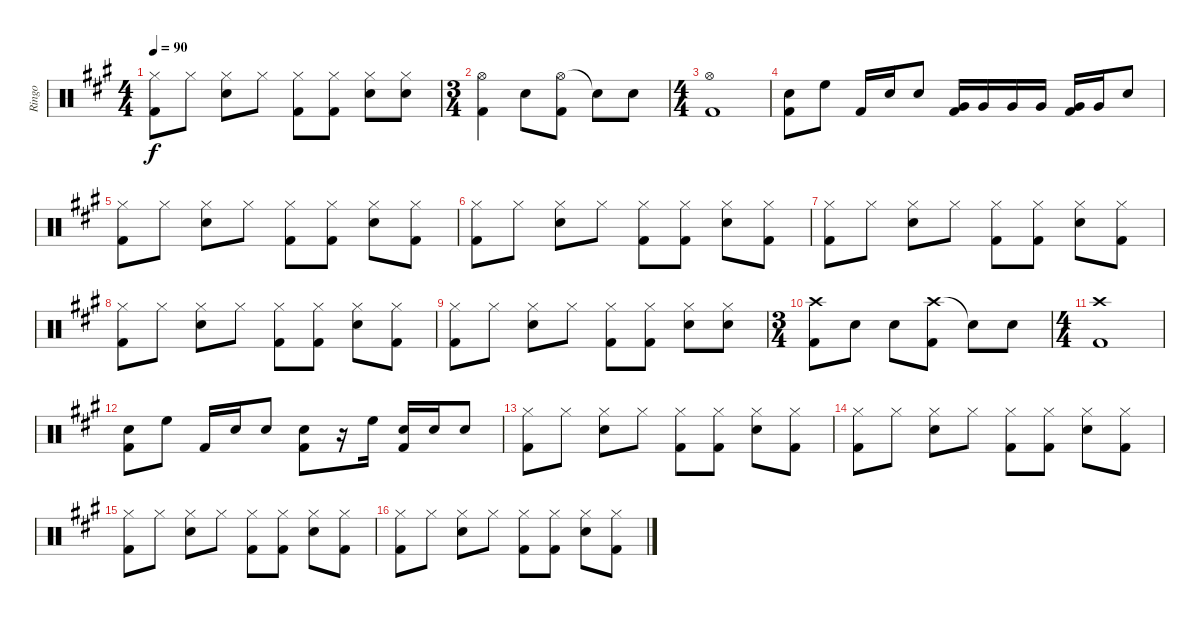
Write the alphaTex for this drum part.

\track ("Ringo" "Ringo") {instrument percussion}
\staff {score}
\articulation defaults
\ts (4 4)
\tempo 90
\clef neutral
\ks a
("Hi-Hat (closed)" "Kick (hit) 2").8{dy f} "Hi-Hat (closed)".8 ("Hi-Hat (closed)" "Snare (hit) 2").8 "Hi-Hat (closed)".8 ("Hi-Hat (closed)" "Kick (hit) 2").8 ("Hi-Hat (closed)" "Kick (hit) 2").8 ("Hi-Hat (closed)" "Snare (hit) 2").8 ("Hi-Hat (closed)" "Snare (hit) 2").8 |
\ts (3 4)
("Hi-Hat (open)" "Kick (hit) 2").4 "Snare (hit) 2".8 ("Hi-Hat (open)" "Kick (hit) 2").8 "Snare (hit)"{t}.8 "Snare (hit) 2".8 |
\ts (4 4)
("Hi-Hat (open)" "Kick (hit) 2").1 |
("Snare (hit) 2" "Kick (hit) 2").8 "High Floor Tom (hit)".8 "Kick (hit) 2".16 "Snare (hit) 2".16 "Snare (hit) 2".8 ("Very Low Tom (hit)" "Kick (hit) 2").16 "Very Low Tom (hit)".16 "Very Low Tom (hit)".16 "Very Low Tom (hit)".16 ("Very Low Tom (hit)" "Kick (hit) 2").16 "Very Low Tom (hit)".16 "Snare (hit) 2".8 |
("Hi-Hat (closed)" "Kick (hit) 2").8 "Hi-Hat (closed)".8 ("Hi-Hat (closed)" "Snare (hit) 2").8 "Hi-Hat (closed)".8 ("Hi-Hat (closed)" "Kick (hit) 2").8 ("Hi-Hat (closed)" "Kick (hit) 2").8 ("Hi-Hat (closed)" "Snare (hit) 2").8 ("Hi-Hat (closed)" "Kick (hit) 2").8 |
("Hi-Hat (closed)" "Kick (hit) 2").8 "Hi-Hat (closed)".8 ("Hi-Hat (closed)" "Snare (hit) 2").8 "Hi-Hat (closed)".8 ("Hi-Hat (closed)" "Kick (hit) 2").8 ("Hi-Hat (closed)" "Kick (hit) 2").8 ("Hi-Hat (closed)" "Snare (hit) 2").8 ("Hi-Hat (closed)" "Kick (hit) 2").8 |
("Hi-Hat (closed)" "Kick (hit) 2").8 "Hi-Hat (closed)".8 ("Hi-Hat (closed)" "Snare (hit) 2").8 "Hi-Hat (closed)".8 ("Hi-Hat (closed)" "Kick (hit) 2").8 ("Hi-Hat (closed)" "Kick (hit) 2").8 ("Hi-Hat (closed)" "Snare (hit) 2").8 ("Hi-Hat (closed)" "Kick (hit) 2").8 |
("Hi-Hat (closed)" "Kick (hit) 2").8 "Hi-Hat (closed)".8 ("Hi-Hat (closed)" "Snare (hit) 2").8 "Hi-Hat (closed)".8 ("Hi-Hat (closed)" "Kick (hit) 2").8 ("Hi-Hat (closed)" "Kick (hit) 2").8 ("Hi-Hat (closed)" "Snare (hit) 2").8 ("Hi-Hat (closed)" "Kick (hit) 2").8 |
("Hi-Hat (closed)" "Kick (hit) 2").8 "Hi-Hat (closed)".8 ("Hi-Hat (closed)" "Snare (hit) 2").8 "Hi-Hat (closed)".8 ("Hi-Hat (closed)" "Kick (hit) 2").8 ("Hi-Hat (closed)" "Kick (hit) 2").8 ("Hi-Hat (closed)" "Snare (hit) 2").8 ("Hi-Hat (closed)" "Snare (hit) 2").8 |
\ts (3 4)
("Crash high (hit)" "Kick (hit) 2").8 "Snare (hit) 2".8 "Snare (hit) 2".8 ("Crash high (hit)" "Kick (hit) 2").8 "Snare (hit)"{t}.8 "Snare (hit) 2".8 |
\ts (4 4)
("Crash high (hit)" "Kick (hit) 2").1 |
("Snare (hit) 2" "Kick (hit) 2").8 "High Floor Tom (hit)".8 "Kick (hit) 2".16 "Snare (hit) 2".16 "Snare (hit) 2".8 ("Snare (hit) 2" "Kick (hit) 2").8 r.16 "High Floor Tom (hit)".16 ("Snare (hit) 2" "Kick (hit) 2").16 "Snare (hit) 2".16 "Snare (hit) 2".8 |
("Hi-Hat (closed)" "Kick (hit) 2").8 "Hi-Hat (closed)".8 ("Hi-Hat (closed)" "Snare (hit) 2").8 "Hi-Hat (closed)".8 ("Hi-Hat (closed)" "Kick (hit) 2").8 ("Hi-Hat (closed)" "Kick (hit) 2").8 ("Hi-Hat (closed)" "Snare (hit) 2").8 ("Hi-Hat (closed)" "Kick (hit) 2").8 |
("Hi-Hat (closed)" "Kick (hit) 2").8 "Hi-Hat (closed)".8 ("Hi-Hat (closed)" "Snare (hit) 2").8 "Hi-Hat (closed)".8 ("Hi-Hat (closed)" "Kick (hit) 2").8 ("Hi-Hat (closed)" "Kick (hit) 2").8 ("Hi-Hat (closed)" "Snare (hit) 2").8 ("Hi-Hat (closed)" "Kick (hit) 2").8 |
("Hi-Hat (closed)" "Kick (hit) 2").8 "Hi-Hat (closed)".8 ("Hi-Hat (closed)" "Snare (hit) 2").8 "Hi-Hat (closed)".8 ("Hi-Hat (closed)" "Kick (hit) 2").8 ("Hi-Hat (closed)" "Kick (hit) 2").8 ("Hi-Hat (closed)" "Snare (hit) 2").8 ("Hi-Hat (closed)" "Kick (hit) 2").8 |
("Hi-Hat (closed)" "Kick (hit) 2").8 "Hi-Hat (closed)".8 ("Hi-Hat (closed)" "Snare (hit) 2").8 "Hi-Hat (closed)".8 ("Hi-Hat (closed)" "Kick (hit) 2").8 ("Hi-Hat (closed)" "Kick (hit) 2").8 ("Hi-Hat (closed)" "Snare (hit) 2").8 ("Hi-Hat (closed)" "Kick (hit) 2").8
